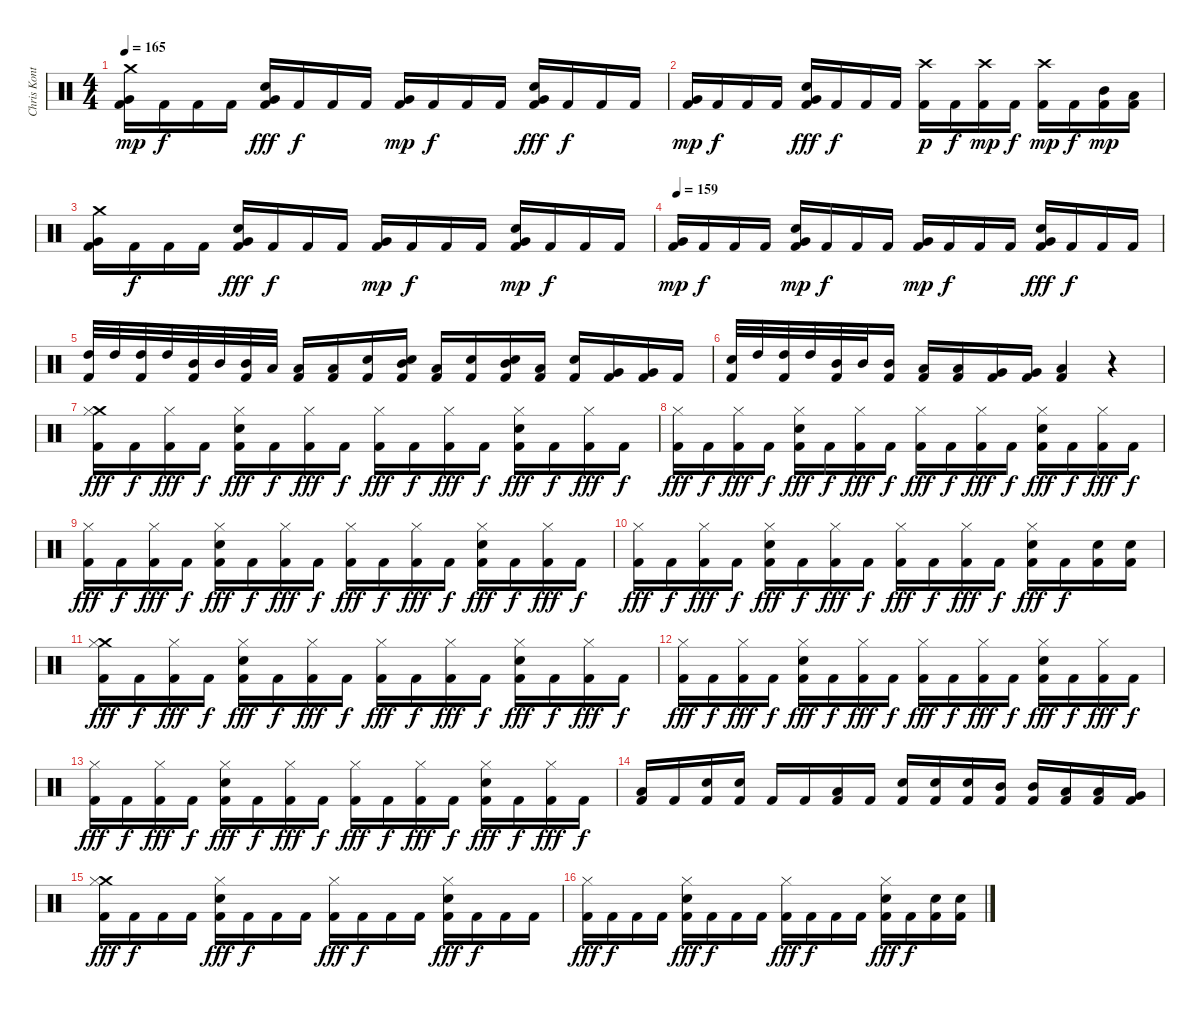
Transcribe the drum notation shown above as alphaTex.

\track ("Chris Kontos" "Chris Kont") {instrument percussion}
\staff {score}
\articulation defaults
\ts (4 4)
\tempo 165
\clef neutral
\ks c
("Crash medium (hit)" "Very Low Tom (hit)" "Kick (hit) 2").16{dy mp} "Kick (hit) 2".16{dy f} "Kick (hit) 2".16 "Kick (hit) 2".16 ("Very Low Tom (hit)" "Electric Snare (hit)" "Kick (hit) 2").16{dy fff} "Kick (hit) 2".16{dy f} "Kick (hit) 2".16 "Kick (hit) 2".16 ("Very Low Tom (hit)" "Kick (hit) 2").16{dy mp} "Kick (hit) 2".16{dy f} "Kick (hit) 2".16 "Kick (hit) 2".16 ("Very Low Tom (hit)" "Electric Snare (hit)" "Kick (hit) 2").16{dy fff} "Kick (hit) 2".16{dy f} "Kick (hit) 2".16 "Kick (hit) 2".16 |
("Very Low Tom (hit)" "Kick (hit) 2").16{dy mp} "Kick (hit) 2".16{dy f} "Kick (hit) 2".16 "Kick (hit) 2".16 ("Very Low Tom (hit)" "Electric Snare (hit)" "Kick (hit) 2").16{dy fff} "Kick (hit) 2".16{dy f} "Kick (hit) 2".16 "Kick (hit) 2".16 ("Crash high (hit)" "Kick (hit) 2").16{dy p} "Kick (hit) 2".16{dy f} ("Crash high (hit)" "Kick (hit) 2").16{dy mp} "Kick (hit) 2".16{dy f} ("Crash high (hit)" "Kick (hit) 2").16{dy mp} "Kick (hit) 2".16{dy f} ("Mid Tom (hit)" "Kick (hit) 2").16{dy mp} ("Low Tom (hit)" "Kick (hit) 2").16 |
("Crash medium (hit)" "Very Low Tom (hit)" "Kick (hit) 2").16 "Kick (hit) 2".16{dy f} "Kick (hit) 2".16 "Kick (hit) 2".16 ("Very Low Tom (hit)" "Electric Snare (hit)" "Kick (hit) 2").16{dy fff} "Kick (hit) 2".16{dy f} "Kick (hit) 2".16 "Kick (hit) 2".16 ("Very Low Tom (hit)" "Kick (hit) 2").16{dy mp} "Kick (hit) 2".16{dy f} "Kick (hit) 2".16 "Kick (hit) 2".16 ("Very Low Tom (hit)" "Electric Snare (hit)" "Kick (hit) 2").16{dy mp} "Kick (hit) 2".16{dy f} "Kick (hit) 2".16 "Kick (hit) 2".16 |
\tempo 159
("Very Low Tom (hit)" "Kick (hit) 2").16{dy mp} "Kick (hit) 2".16{dy f} "Kick (hit) 2".16 "Kick (hit) 2".16 ("Very Low Tom (hit)" "Electric Snare (hit)" "Kick (hit) 2").16{dy mp} "Kick (hit) 2".16{dy f} "Kick (hit) 2".16 "Kick (hit) 2".16 ("Very Low Tom (hit)" "Kick (hit) 2").16{dy mp} "Kick (hit) 2".16{dy f} "Kick (hit) 2".16 "Kick (hit) 2".16 ("Very Low Tom (hit)" "Electric Snare (hit)" "Kick (hit) 2").16{dy fff} "Kick (hit) 2".16{dy f} "Kick (hit) 2".16 "Kick (hit) 2".16 |
("High Tom (hit)" "Kick (hit) 2").32 "High Tom (hit)".32 ("High Tom (hit)" "Kick (hit) 2").32 "High Tom (hit)".32 ("Mid Tom (hit)" "Kick (hit) 2").32 "Mid Tom (hit)".32 ("Mid Tom (hit)" "Kick (hit) 2").32 "Low Tom (hit)".32 ("Low Tom (hit)" "Kick (hit) 2").16 ("Low Tom (hit)" "Kick (hit) 2").16 ("Electric Snare (hit)" "Kick (hit) 2").16 ("Mid Tom (hit)" "Electric Snare (hit)" "Kick (hit) 2").16 ("Low Tom (hit)" "Kick (hit) 2").16 ("Electric Snare (hit)" "Kick (hit) 2").16 ("Mid Tom (hit)" "Electric Snare (hit)" "Kick (hit) 2").16 ("Low Tom (hit)" "Kick (hit) 2").16 ("Electric Snare (hit)" "Kick (hit) 2").16 ("Very Low Tom (hit)" "Kick (hit) 2").16 ("Very Low Tom (hit)" "Kick (hit) 2").16 "Kick (hit) 2".16 |
("Electric Snare (hit)" "Kick (hit) 2").32 "High Tom (hit)".32 ("High Tom (hit)" "Kick (hit) 2").32 "High Tom (hit)".32 ("Mid Tom (hit)" "Kick (hit) 2").32 "Mid Tom (hit)".32 ("Mid Tom (hit)" "Kick (hit) 2").16 ("Low Tom (hit)" "Kick (hit) 2").16 ("Low Tom (hit)" "Kick (hit) 2").16 ("Very Low Tom (hit)" "Kick (hit) 2").16 ("Very Low Tom (hit)" "Kick (hit) 2").16 ("Low Floor Tom (hit)" "Kick (hit) 2").4 r.4 |
("Crash medium (hit)" "Hi-Hat (closed)" "Kick (hit) 2").16{dy fff} "Kick (hit) 2".16{dy f} ("Hi-Hat (closed)" "Kick (hit) 2").16{dy fff} "Kick (hit) 2".16{dy f} ("Electric Snare (hit)" "Hi-Hat (closed)" "Kick (hit) 2").16{dy fff} "Kick (hit) 2".16{dy f} ("Hi-Hat (closed)" "Kick (hit) 2").16{dy fff} "Kick (hit) 2".16{dy f} ("Hi-Hat (closed)" "Kick (hit) 2").16{dy fff} "Kick (hit) 2".16{dy f} ("Hi-Hat (closed)" "Kick (hit) 2").16{dy fff} "Kick (hit) 2".16{dy f} ("Electric Snare (hit)" "Hi-Hat (closed)" "Kick (hit) 2").16{dy fff} "Kick (hit) 2".16{dy f} ("Hi-Hat (closed)" "Kick (hit) 2").16{dy fff} "Kick (hit) 2".16{dy f} |
("Hi-Hat (closed)" "Kick (hit) 2").16{dy fff} "Kick (hit) 2".16{dy f} ("Hi-Hat (closed)" "Kick (hit) 2").16{dy fff} "Kick (hit) 2".16{dy f} ("Electric Snare (hit)" "Hi-Hat (closed)" "Kick (hit) 2").16{dy fff} "Kick (hit) 2".16{dy f} ("Hi-Hat (closed)" "Kick (hit) 2").16{dy fff} "Kick (hit) 2".16{dy f} ("Hi-Hat (closed)" "Kick (hit) 2").16{dy fff} "Kick (hit) 2".16{dy f} ("Hi-Hat (closed)" "Kick (hit) 2").16{dy fff} "Kick (hit) 2".16{dy f} ("Electric Snare (hit)" "Hi-Hat (closed)" "Kick (hit) 2").16{dy fff} "Kick (hit) 2".16{dy f} ("Hi-Hat (closed)" "Kick (hit) 2").16{dy fff} "Kick (hit) 2".16{dy f} |
("Hi-Hat (closed)" "Kick (hit) 2").16{dy fff} "Kick (hit) 2".16{dy f} ("Hi-Hat (closed)" "Kick (hit) 2").16{dy fff} "Kick (hit) 2".16{dy f} ("Electric Snare (hit)" "Hi-Hat (closed)" "Kick (hit) 2").16{dy fff} "Kick (hit) 2".16{dy f} ("Hi-Hat (closed)" "Kick (hit) 2").16{dy fff} "Kick (hit) 2".16{dy f} ("Hi-Hat (closed)" "Kick (hit) 2").16{dy fff} "Kick (hit) 2".16{dy f} ("Hi-Hat (closed)" "Kick (hit) 2").16{dy fff} "Kick (hit) 2".16{dy f} ("Electric Snare (hit)" "Hi-Hat (closed)" "Kick (hit) 2").16{dy fff} "Kick (hit) 2".16{dy f} ("Hi-Hat (closed)" "Kick (hit) 2").16{dy fff} "Kick (hit) 2".16{dy f} |
("Hi-Hat (closed)" "Kick (hit) 2").16{dy fff} "Kick (hit) 2".16{dy f} ("Hi-Hat (closed)" "Kick (hit) 2").16{dy fff} "Kick (hit) 2".16{dy f} ("Electric Snare (hit)" "Hi-Hat (closed)" "Kick (hit) 2").16{dy fff} "Kick (hit) 2".16{dy f} ("Hi-Hat (closed)" "Kick (hit) 2").16{dy fff} "Kick (hit) 2".16{dy f} ("Hi-Hat (closed)" "Kick (hit) 2").16{dy fff} "Kick (hit) 2".16{dy f} ("Hi-Hat (closed)" "Kick (hit) 2").16{dy fff} "Kick (hit) 2".16{dy f} ("Electric Snare (hit)" "Hi-Hat (closed)" "Kick (hit) 2").16{dy fff} "Kick (hit) 2".16{dy f} ("Electric Snare (hit)" "Kick (hit) 2").16 ("Electric Snare (hit)" "Kick (hit) 2").16 |
("Crash medium (hit)" "Hi-Hat (closed)" "Kick (hit) 2").16{dy fff} "Kick (hit) 2".16{dy f} ("Hi-Hat (closed)" "Kick (hit) 2").16{dy fff} "Kick (hit) 2".16{dy f} ("Electric Snare (hit)" "Hi-Hat (closed)" "Kick (hit) 2").16{dy fff} "Kick (hit) 2".16{dy f} ("Hi-Hat (closed)" "Kick (hit) 2").16{dy fff} "Kick (hit) 2".16{dy f} ("Hi-Hat (closed)" "Kick (hit) 2").16{dy fff} "Kick (hit) 2".16{dy f} ("Hi-Hat (closed)" "Kick (hit) 2").16{dy fff} "Kick (hit) 2".16{dy f} ("Electric Snare (hit)" "Hi-Hat (closed)" "Kick (hit) 2").16{dy fff} "Kick (hit) 2".16{dy f} ("Hi-Hat (closed)" "Kick (hit) 2").16{dy fff} "Kick (hit) 2".16{dy f} |
("Hi-Hat (closed)" "Kick (hit) 2").16{dy fff} "Kick (hit) 2".16{dy f} ("Hi-Hat (closed)" "Kick (hit) 2").16{dy fff} "Kick (hit) 2".16{dy f} ("Electric Snare (hit)" "Hi-Hat (closed)" "Kick (hit) 2").16{dy fff} "Kick (hit) 2".16{dy f} ("Hi-Hat (closed)" "Kick (hit) 2").16{dy fff} "Kick (hit) 2".16{dy f} ("Hi-Hat (closed)" "Kick (hit) 2").16{dy fff} "Kick (hit) 2".16{dy f} ("Hi-Hat (closed)" "Kick (hit) 2").16{dy fff} "Kick (hit) 2".16{dy f} ("Electric Snare (hit)" "Hi-Hat (closed)" "Kick (hit) 2").16{dy fff} "Kick (hit) 2".16{dy f} ("Hi-Hat (closed)" "Kick (hit) 2").16{dy fff} "Kick (hit) 2".16{dy f} |
("Hi-Hat (closed)" "Kick (hit) 2").16{dy fff} "Kick (hit) 2".16{dy f} ("Hi-Hat (closed)" "Kick (hit) 2").16{dy fff} "Kick (hit) 2".16{dy f} ("Electric Snare (hit)" "Hi-Hat (closed)" "Kick (hit) 2").16{dy fff} "Kick (hit) 2".16{dy f} ("Hi-Hat (closed)" "Kick (hit) 2").16{dy fff} "Kick (hit) 2".16{dy f} ("Hi-Hat (closed)" "Kick (hit) 2").16{dy fff} "Kick (hit) 2".16{dy f} ("Hi-Hat (closed)" "Kick (hit) 2").16{dy fff} "Kick (hit) 2".16{dy f} ("Electric Snare (hit)" "Hi-Hat (closed)" "Kick (hit) 2").16{dy fff} "Kick (hit) 2".16{dy f} ("Hi-Hat (closed)" "Kick (hit) 2").16{dy fff} "Kick (hit) 2".16{dy f} |
("Low Tom (hit)" "Kick (hit) 2").16 "Kick (hit) 2".16 ("Electric Snare (hit)" "Kick (hit) 2").16 ("Electric Snare (hit)" "Kick (hit) 2").16 "Kick (hit) 2".16 "Kick (hit) 2".16 ("Low Tom (hit)" "Kick (hit) 2").16 "Kick (hit) 2".16 ("Electric Snare (hit)" "Kick (hit) 2").16 ("Electric Snare (hit)" "Kick (hit) 2").16 ("Electric Snare (hit)" "Kick (hit) 2").16 ("Mid Tom (hit)" "Kick (hit) 2").16 ("Mid Tom (hit)" "Kick (hit) 2").16 ("Low Tom (hit)" "Kick (hit) 2").16 ("Low Tom (hit)" "Kick (hit) 2").16 ("Very Low Tom (hit)" "Kick (hit) 2").16 |
("Crash medium (hit)" "Hi-Hat (closed)" "Kick (hit) 2").16{dy fff} "Kick (hit) 2".16{dy f} "Kick (hit) 2".16 "Kick (hit) 2".16 ("Electric Snare (hit)" "Hi-Hat (closed)" "Kick (hit) 2").16{dy fff} "Kick (hit) 2".16{dy f} "Kick (hit) 2".16 "Kick (hit) 2".16 ("Hi-Hat (closed)" "Kick (hit) 2").16{dy fff} "Kick (hit) 2".16{dy f} "Kick (hit) 2".16 "Kick (hit) 2".16 ("Electric Snare (hit)" "Hi-Hat (closed)" "Kick (hit) 2").16{dy fff} "Kick (hit) 2".16{dy f} "Kick (hit) 2".16 "Kick (hit) 2".16 |
("Hi-Hat (closed)" "Kick (hit) 2").16{dy fff} "Kick (hit) 2".16{dy f} "Kick (hit) 2".16 "Kick (hit) 2".16 ("Electric Snare (hit)" "Hi-Hat (closed)" "Kick (hit) 2").16{dy fff} "Kick (hit) 2".16{dy f} "Kick (hit) 2".16 "Kick (hit) 2".16 ("Hi-Hat (closed)" "Kick (hit) 2").16{dy fff} "Kick (hit) 2".16{dy f} "Kick (hit) 2".16 "Kick (hit) 2".16 ("Electric Snare (hit)" "Hi-Hat (closed)" "Kick (hit) 2").16{dy fff} "Kick (hit) 2".16{dy f} ("Electric Snare (hit)" "Kick (hit) 2").16 ("Electric Snare (hit)" "Kick (hit) 2").16
